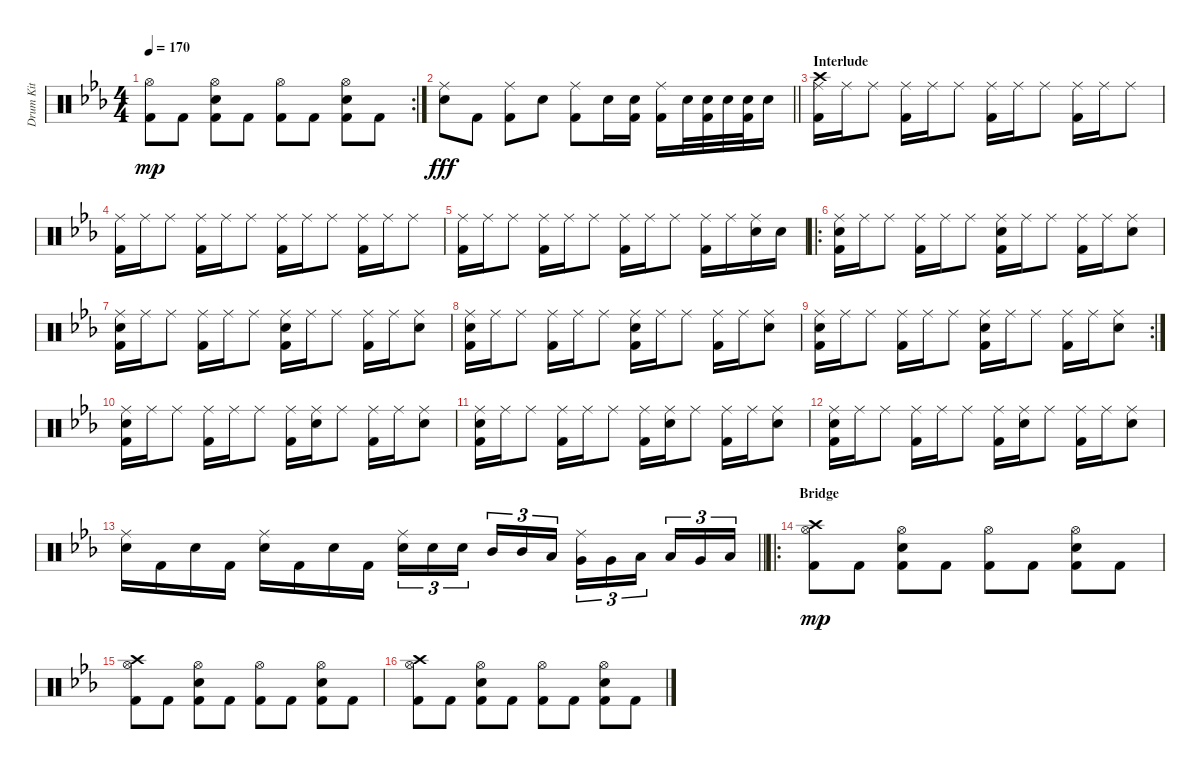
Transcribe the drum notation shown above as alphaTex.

\track ("Drum Kit" "Drum Kit") {instrument percussion}
\staff {score}
\articulation defaults
\rc 2
\ts (4 4)
\tempo 170
\clef neutral
\ks cminor
("Hi-Hat (open)" "Kick (hit) 2").8{dy mp} "Kick (hit) 2".8 ("Hi-Hat (open)" "Electric Snare (hit)" "Kick (hit) 2").8 "Kick (hit) 2".8 ("Hi-Hat (open)" "Kick (hit) 2").8 "Kick (hit) 2".8 ("Hi-Hat (open)" "Electric Snare (hit)" "Kick (hit) 2").8 "Kick (hit) 2".8 |
\barLineRight lightlight
("Ride (middle)" "Electric Snare (hit)").8{dy fff} "Kick (hit) 2".8 ("Ride (middle)" "Kick (hit) 2").8 "Electric Snare (hit)".8 ("Ride (middle)" "Kick (hit) 2").8 "Electric Snare (hit)".16 ("Electric Snare (hit)" "Kick (hit) 2").16 ("Ride (middle)" "Kick (hit) 2").16 "Electric Snare (hit)".32 ("Electric Snare (hit)" "Kick (hit) 2").32 "Electric Snare (hit)".32 ("Electric Snare (hit)" "Kick (hit) 2").32 "Electric Snare (hit)".16 |
\section ("" "Interlude")
("Crash high (hit)" "Ride (middle)" "Kick (hit) 2").16 "Ride (middle)".16 "Ride (middle)".8 ("Ride (middle)" "Kick (hit) 2").16 "Ride (middle)".16 "Ride (middle)".8 ("Ride (middle)" "Kick (hit) 2").16 "Ride (middle)".16 "Ride (middle)".8 ("Ride (middle)" "Kick (hit) 2").16 "Ride (middle)".16 "Ride (middle)".8 |
("Ride (middle)" "Kick (hit) 2").16 "Ride (middle)".16 "Ride (middle)".8 ("Ride (middle)" "Kick (hit) 2").16 "Ride (middle)".16 "Ride (middle)".8 ("Ride (middle)" "Kick (hit) 2").16 "Ride (middle)".16 "Ride (middle)".8 ("Ride (middle)" "Kick (hit) 2").16 "Ride (middle)".16 "Ride (middle)".8 |
("Ride (middle)" "Kick (hit) 2").16 "Ride (middle)".16 "Ride (middle)".8 ("Ride (middle)" "Kick (hit) 2").16 "Ride (middle)".16 "Ride (middle)".8 ("Ride (middle)" "Kick (hit) 2").16 "Ride (middle)".16 "Ride (middle)".8 ("Ride (middle)" "Kick (hit) 2").16 "Ride (middle)".16 ("Ride (middle)" "Electric Snare (hit)").16 "Electric Snare (hit)".16 |
\ro
("Ride (middle)" "Electric Snare (hit)" "Kick (hit) 2").16 "Ride (middle)".16 "Ride (middle)".8 ("Ride (middle)" "Kick (hit) 2").16 "Ride (middle)".16 "Ride (middle)".8 ("Ride (middle)" "Electric Snare (hit)" "Kick (hit) 2").16 "Ride (middle)".16 "Ride (middle)".8 ("Ride (middle)" "Kick (hit) 2").16 "Ride (middle)".16 ("Ride (middle)" "Electric Snare (hit)").8 |
("Ride (middle)" "Electric Snare (hit)" "Kick (hit) 2").16 "Ride (middle)".16 "Ride (middle)".8 ("Ride (middle)" "Kick (hit) 2").16 "Ride (middle)".16 "Ride (middle)".8 ("Ride (middle)" "Electric Snare (hit)" "Kick (hit) 2").16 "Ride (middle)".16 "Ride (middle)".8 ("Ride (middle)" "Kick (hit) 2").16 "Ride (middle)".16 ("Ride (middle)" "Electric Snare (hit)").8 |
("Ride (middle)" "Electric Snare (hit)" "Kick (hit) 2").16 "Ride (middle)".16 "Ride (middle)".8 ("Ride (middle)" "Kick (hit) 2").16 "Ride (middle)".16 "Ride (middle)".8 ("Ride (middle)" "Electric Snare (hit)" "Kick (hit) 2").16 "Ride (middle)".16 "Ride (middle)".8 ("Ride (middle)" "Kick (hit) 2").16 "Ride (middle)".16 ("Ride (middle)" "Electric Snare (hit)").8 |
\rc 2
("Ride (middle)" "Electric Snare (hit)" "Kick (hit) 2").16 "Ride (middle)".16 "Ride (middle)".8 ("Ride (middle)" "Kick (hit) 2").16 "Ride (middle)".16 "Ride (middle)".8 ("Ride (middle)" "Electric Snare (hit)" "Kick (hit) 2").16 "Ride (middle)".16 "Ride (middle)".8 ("Ride (middle)" "Kick (hit) 2").16 "Ride (middle)".16 ("Ride (middle)" "Electric Snare (hit)").8 |
("Ride (middle)" "Electric Snare (hit)" "Kick (hit) 2").16 "Ride (middle)".16 "Ride (middle)".8 ("Ride (middle)" "Kick (hit) 2").16 "Ride (middle)".16 "Ride (middle)".8 ("Ride (middle)" "Kick (hit) 2").16 ("Ride (middle)" "Electric Snare (hit)").16 "Ride (middle)".8 ("Ride (middle)" "Kick (hit) 2").16 "Ride (middle)".16 ("Ride (middle)" "Electric Snare (hit)").8 |
("Ride (middle)" "Electric Snare (hit)" "Kick (hit) 2").16 "Ride (middle)".16 "Ride (middle)".8 ("Ride (middle)" "Kick (hit) 2").16 "Ride (middle)".16 "Ride (middle)".8 ("Ride (middle)" "Kick (hit) 2").16 ("Ride (middle)" "Electric Snare (hit)").16 "Ride (middle)".8 ("Ride (middle)" "Kick (hit) 2").16 "Ride (middle)".16 ("Ride (middle)" "Electric Snare (hit)").8 |
("Ride (middle)" "Electric Snare (hit)" "Kick (hit) 2").16 "Ride (middle)".16 "Ride (middle)".8 ("Ride (middle)" "Kick (hit) 2").16 "Ride (middle)".16 "Ride (middle)".8 ("Ride (middle)" "Kick (hit) 2").16 ("Ride (middle)" "Electric Snare (hit)").16 "Ride (middle)".8 ("Ride (middle)" "Kick (hit) 2").16 "Ride (middle)".16 ("Ride (middle)" "Electric Snare (hit)").8 |
\barLineRight lightlight
("Ride (middle)" "Electric Snare (hit)").16 "Kick (hit) 2".16 "Electric Snare (hit)".16 "Kick (hit) 2".16 ("Ride (middle)" "Electric Snare (hit)").16 "Kick (hit) 2".16 "Electric Snare (hit)".16 "Kick (hit) 2".16 ("Ride (middle)" "Electric Snare (hit)").16{tu (3 2)} "Electric Snare (hit)".16{tu (3 2)} "Electric Snare (hit)".16{tu (3 2)} "Mid Tom (hit)".16{tu (3 2)} "Mid Tom (hit)".16{tu (3 2)} "Low Tom (hit)".16{tu (3 2)} ("Ride (middle)" "Very Low Tom (hit)").16{tu (3 2)} "Very Low Tom (hit)".16{tu (3 2)} "Low Floor Tom (hit)".16{tu (3 2)} "Low Floor Tom (hit)".16{tu (3 2)} "Very Low Tom (hit)".16{tu (3 2)} "Low Floor Tom (hit)".16{tu (3 2)} |
\ro
\section ("" "Bridge")
("Crash high (hit)" "Hi-Hat (open)" "Kick (hit) 2").8{dy mp} "Kick (hit) 2".8 ("Hi-Hat (open)" "Electric Snare (hit)" "Kick (hit) 2").8 "Kick (hit) 2".8 ("Hi-Hat (open)" "Kick (hit) 2").8 "Kick (hit) 2".8 ("Hi-Hat (open)" "Electric Snare (hit)" "Kick (hit) 2").8 "Kick (hit) 2".8 |
("Crash high (hit)" "Hi-Hat (open)" "Kick (hit) 2").8 "Kick (hit) 2".8 ("Hi-Hat (open)" "Electric Snare (hit)" "Kick (hit) 2").8 "Kick (hit) 2".8 ("Hi-Hat (open)" "Kick (hit) 2").8 "Kick (hit) 2".8 ("Hi-Hat (open)" "Electric Snare (hit)" "Kick (hit) 2").8 "Kick (hit) 2".8 |
("Crash high (hit)" "Hi-Hat (open)" "Kick (hit) 2").8 "Kick (hit) 2".8 ("Hi-Hat (open)" "Electric Snare (hit)" "Kick (hit) 2").8 "Kick (hit) 2".8 ("Hi-Hat (open)" "Kick (hit) 2").8 "Kick (hit) 2".8 ("Hi-Hat (open)" "Electric Snare (hit)" "Kick (hit) 2").8 "Kick (hit) 2".8
